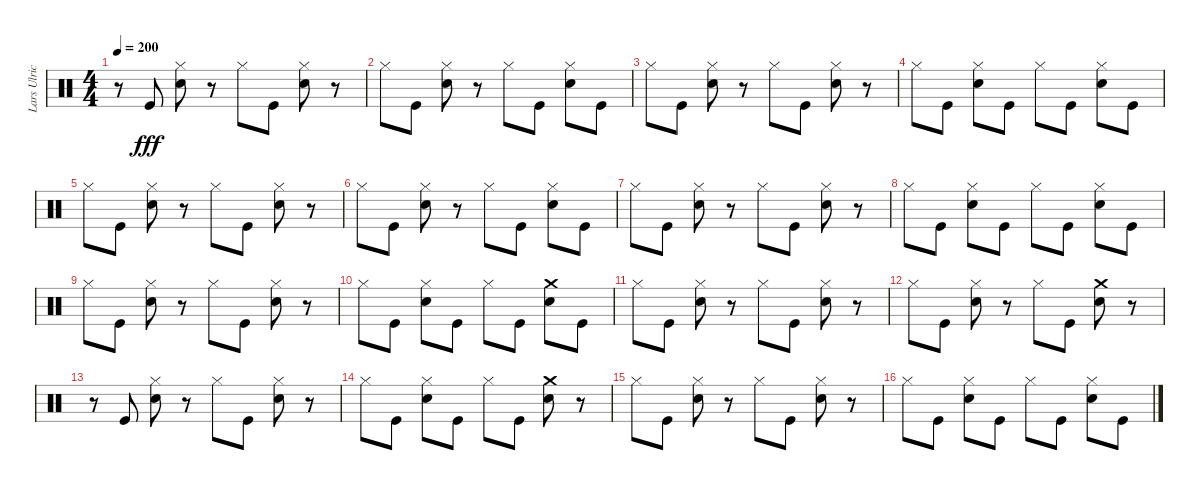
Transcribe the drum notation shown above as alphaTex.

\track ("Lars Ulrich" "Lars Ulric") {instrument percussion}
\staff {score}
\articulation defaults
\ts (4 4)
\tempo 200
\clef neutral
\ks c
r.8{dy fff} "Kick (hit)".8 ("Hi-Hat (closed)" "Snare (hit) 2").8 r.8 "Hi-Hat (closed)".8 "Kick (hit)".8 ("Hi-Hat (closed)" "Snare (hit) 2").8 r.8 |
"Hi-Hat (closed)".8 "Kick (hit)".8 ("Hi-Hat (closed)" "Snare (hit) 2").8 r.8 "Hi-Hat (closed)".8 "Kick (hit)".8 ("Hi-Hat (closed)" "Snare (hit) 2").8 "Kick (hit)".8 |
"Hi-Hat (closed)".8 "Kick (hit)".8 ("Hi-Hat (closed)" "Snare (hit) 2").8 r.8 "Hi-Hat (closed)".8 "Kick (hit)".8 ("Hi-Hat (closed)" "Snare (hit) 2").8 r.8 |
"Hi-Hat (closed)".8 "Kick (hit)".8 ("Hi-Hat (closed)" "Snare (hit) 2").8 "Kick (hit)".8 "Hi-Hat (closed)".8 "Kick (hit)".8 ("Hi-Hat (closed)" "Snare (hit) 2").8 "Kick (hit)".8 |
"Hi-Hat (closed)".8 "Kick (hit)".8 ("Hi-Hat (closed)" "Snare (hit) 2").8 r.8 "Hi-Hat (closed)".8 "Kick (hit)".8 ("Hi-Hat (closed)" "Snare (hit) 2").8 r.8 |
"Hi-Hat (closed)".8 "Kick (hit)".8 ("Hi-Hat (closed)" "Snare (hit) 2").8 r.8 "Hi-Hat (closed)".8 "Kick (hit)".8 ("Hi-Hat (closed)" "Snare (hit) 2").8 "Kick (hit)".8 |
"Hi-Hat (closed)".8 "Kick (hit)".8 ("Hi-Hat (closed)" "Snare (hit) 2").8 r.8 "Hi-Hat (closed)".8 "Kick (hit)".8 ("Hi-Hat (closed)" "Snare (hit) 2").8 r.8 |
"Hi-Hat (closed)".8 "Kick (hit)".8 ("Hi-Hat (closed)" "Snare (hit) 2").8 "Kick (hit)".8 "Hi-Hat (closed)".8 "Kick (hit)".8 ("Hi-Hat (closed)" "Snare (hit) 2").8 "Kick (hit)".8 |
"Hi-Hat (closed)".8 "Kick (hit)".8 ("Hi-Hat (closed)" "Snare (hit) 2").8 r.8 "Hi-Hat (closed)".8 "Kick (hit)".8 ("Hi-Hat (closed)" "Snare (hit) 2").8 r.8 |
"Hi-Hat (closed)".8 "Kick (hit)".8 ("Hi-Hat (closed)" "Snare (hit) 2").8 "Kick (hit)".8 "Hi-Hat (closed)".8 "Kick (hit)".8 ("Crash medium (hit)" "Snare (hit) 2").8 "Kick (hit)".8 |
"Hi-Hat (closed)".8 "Kick (hit)".8 ("Hi-Hat (closed)" "Snare (hit) 2").8 r.8 "Hi-Hat (closed)".8 "Kick (hit)".8 ("Hi-Hat (closed)" "Snare (hit) 2").8 r.8 |
"Hi-Hat (closed)".8 "Kick (hit)".8 ("Hi-Hat (closed)" "Snare (hit) 2").8 r.8 "Hi-Hat (closed)".8 "Kick (hit)".8 ("Crash medium (hit)" "Snare (hit) 2").8 r.8 |
r.8 "Kick (hit)".8 ("Hi-Hat (closed)" "Snare (hit) 2").8 r.8 "Hi-Hat (closed)".8 "Kick (hit)".8 ("Hi-Hat (closed)" "Snare (hit) 2").8 r.8 |
"Hi-Hat (closed)".8 "Kick (hit)".8 ("Hi-Hat (closed)" "Snare (hit) 2").8 "Kick (hit)".8 "Hi-Hat (closed)".8 "Kick (hit)".8 ("Crash medium (hit)" "Snare (hit) 2").8 r.8 |
"Hi-Hat (closed)".8 "Kick (hit)".8 ("Hi-Hat (closed)" "Snare (hit) 2").8 r.8 "Hi-Hat (closed)".8 "Kick (hit)".8 ("Hi-Hat (closed)" "Snare (hit) 2").8 r.8 |
"Hi-Hat (closed)".8 "Kick (hit)".8 ("Hi-Hat (closed)" "Snare (hit) 2").8 "Kick (hit)".8 "Hi-Hat (closed)".8 "Kick (hit)".8 ("Hi-Hat (closed)" "Snare (hit) 2").8 "Kick (hit)".8
